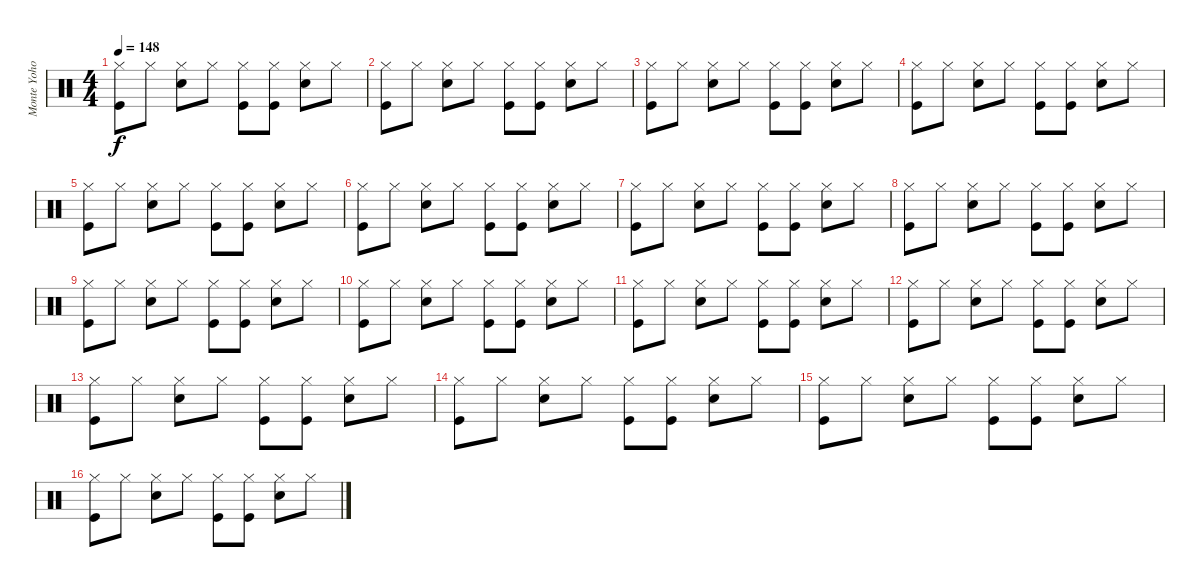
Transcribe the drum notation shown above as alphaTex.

\track ("Monte Yoho Drums" "Monte Yoho") {instrument percussion}
\staff {score}
\articulation defaults
\ts (4 4)
\tempo 148
\clef neutral
\ks c
("Hi-Hat (closed)" "Kick (hit)").8{dy f} "Hi-Hat (closed)".8 ("Hi-Hat (closed)" "Snare (hit) 2").8 "Hi-Hat (closed)".8 ("Hi-Hat (closed)" "Kick (hit)").8 ("Hi-Hat (closed)" "Kick (hit)").8 ("Hi-Hat (closed)" "Snare (hit) 2").8 "Hi-Hat (closed)".8 |
("Hi-Hat (closed)" "Kick (hit)").8 "Hi-Hat (closed)".8 ("Hi-Hat (closed)" "Snare (hit) 2").8 "Hi-Hat (closed)".8 ("Hi-Hat (closed)" "Kick (hit)").8 ("Hi-Hat (closed)" "Kick (hit)").8 ("Hi-Hat (closed)" "Snare (hit) 2").8 "Hi-Hat (closed)".8 |
("Hi-Hat (closed)" "Kick (hit)").8 "Hi-Hat (closed)".8 ("Hi-Hat (closed)" "Snare (hit) 2").8 "Hi-Hat (closed)".8 ("Hi-Hat (closed)" "Kick (hit)").8 ("Hi-Hat (closed)" "Kick (hit)").8 ("Hi-Hat (closed)" "Snare (hit) 2").8 "Hi-Hat (closed)".8 |
("Hi-Hat (closed)" "Kick (hit)").8 "Hi-Hat (closed)".8 ("Hi-Hat (closed)" "Snare (hit) 2").8 "Hi-Hat (closed)".8 ("Hi-Hat (closed)" "Kick (hit)").8 ("Hi-Hat (closed)" "Kick (hit)").8 ("Hi-Hat (closed)" "Snare (hit) 2").8 "Hi-Hat (closed)".8 |
("Hi-Hat (closed)" "Kick (hit)").8 "Hi-Hat (closed)".8 ("Hi-Hat (closed)" "Snare (hit) 2").8 "Hi-Hat (closed)".8 ("Hi-Hat (closed)" "Kick (hit)").8 ("Hi-Hat (closed)" "Kick (hit)").8 ("Hi-Hat (closed)" "Snare (hit) 2").8 "Hi-Hat (closed)".8 |
("Hi-Hat (closed)" "Kick (hit)").8 "Hi-Hat (closed)".8 ("Hi-Hat (closed)" "Snare (hit) 2").8 "Hi-Hat (closed)".8 ("Hi-Hat (closed)" "Kick (hit)").8 ("Hi-Hat (closed)" "Kick (hit)").8 ("Hi-Hat (closed)" "Snare (hit) 2").8 "Hi-Hat (closed)".8 |
("Hi-Hat (closed)" "Kick (hit)").8 "Hi-Hat (closed)".8 ("Hi-Hat (closed)" "Snare (hit) 2").8 "Hi-Hat (closed)".8 ("Hi-Hat (closed)" "Kick (hit)").8 ("Hi-Hat (closed)" "Kick (hit)").8 ("Hi-Hat (closed)" "Snare (hit) 2").8 "Hi-Hat (closed)".8 |
("Hi-Hat (closed)" "Kick (hit)").8 "Hi-Hat (closed)".8 ("Hi-Hat (closed)" "Snare (hit) 2").8 "Hi-Hat (closed)".8 ("Hi-Hat (closed)" "Kick (hit)").8 ("Hi-Hat (closed)" "Kick (hit)").8 ("Hi-Hat (closed)" "Snare (hit) 2").8 "Hi-Hat (closed)".8 |
("Hi-Hat (closed)" "Kick (hit)").8 "Hi-Hat (closed)".8 ("Hi-Hat (closed)" "Snare (hit) 2").8 "Hi-Hat (closed)".8 ("Hi-Hat (closed)" "Kick (hit)").8 ("Hi-Hat (closed)" "Kick (hit)").8 ("Hi-Hat (closed)" "Snare (hit) 2").8 "Hi-Hat (closed)".8 |
("Hi-Hat (closed)" "Kick (hit)").8 "Hi-Hat (closed)".8 ("Hi-Hat (closed)" "Snare (hit) 2").8 "Hi-Hat (closed)".8 ("Hi-Hat (closed)" "Kick (hit)").8 ("Hi-Hat (closed)" "Kick (hit)").8 ("Hi-Hat (closed)" "Snare (hit) 2").8 "Hi-Hat (closed)".8 |
("Hi-Hat (closed)" "Kick (hit)").8 "Hi-Hat (closed)".8 ("Hi-Hat (closed)" "Snare (hit) 2").8 "Hi-Hat (closed)".8 ("Hi-Hat (closed)" "Kick (hit)").8 ("Hi-Hat (closed)" "Kick (hit)").8 ("Hi-Hat (closed)" "Snare (hit) 2").8 "Hi-Hat (closed)".8 |
("Hi-Hat (closed)" "Kick (hit)").8 "Hi-Hat (closed)".8 ("Hi-Hat (closed)" "Snare (hit) 2").8 "Hi-Hat (closed)".8 ("Hi-Hat (closed)" "Kick (hit)").8 ("Hi-Hat (closed)" "Kick (hit)").8 ("Hi-Hat (closed)" "Snare (hit) 2").8 "Hi-Hat (closed)".8 |
("Hi-Hat (closed)" "Kick (hit)").8 "Hi-Hat (closed)".8 ("Hi-Hat (closed)" "Snare (hit) 2").8 "Hi-Hat (closed)".8 ("Hi-Hat (closed)" "Kick (hit)").8 ("Hi-Hat (closed)" "Kick (hit)").8 ("Hi-Hat (closed)" "Snare (hit) 2").8 "Hi-Hat (closed)".8 |
("Hi-Hat (closed)" "Kick (hit)").8 "Hi-Hat (closed)".8 ("Hi-Hat (closed)" "Snare (hit) 2").8 "Hi-Hat (closed)".8 ("Hi-Hat (closed)" "Kick (hit)").8 ("Hi-Hat (closed)" "Kick (hit)").8 ("Hi-Hat (closed)" "Snare (hit) 2").8 "Hi-Hat (closed)".8 |
("Hi-Hat (closed)" "Kick (hit)").8 "Hi-Hat (closed)".8 ("Hi-Hat (closed)" "Snare (hit) 2").8 "Hi-Hat (closed)".8 ("Hi-Hat (closed)" "Kick (hit)").8 ("Hi-Hat (closed)" "Kick (hit)").8 ("Hi-Hat (closed)" "Snare (hit) 2").8 "Hi-Hat (closed)".8 |
("Hi-Hat (closed)" "Kick (hit)").8 "Hi-Hat (closed)".8 ("Hi-Hat (closed)" "Snare (hit) 2").8 "Hi-Hat (closed)".8 ("Hi-Hat (closed)" "Kick (hit)").8 ("Hi-Hat (closed)" "Kick (hit)").8 ("Hi-Hat (closed)" "Snare (hit) 2").8 "Hi-Hat (closed)".8
